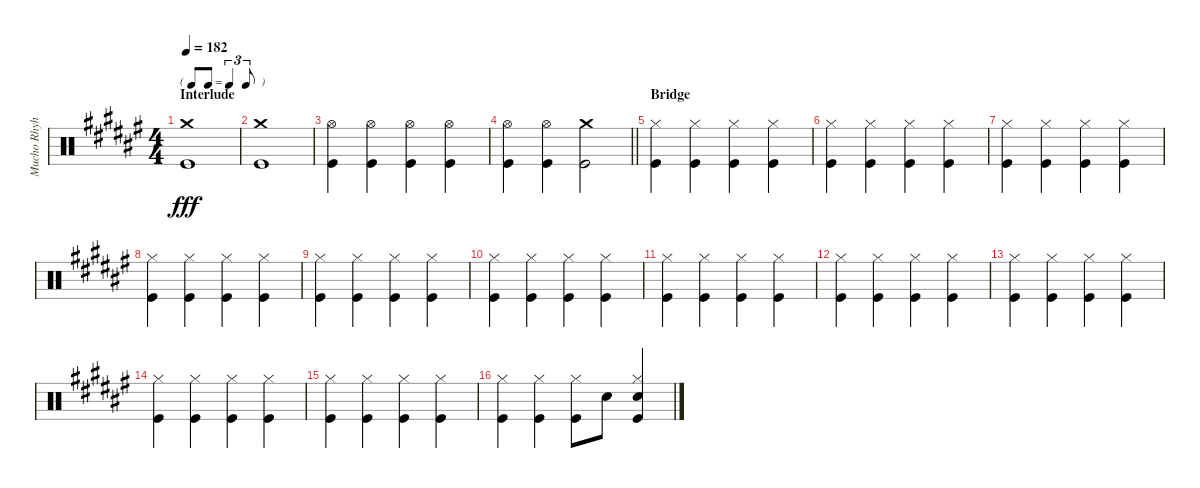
\track ("Mucho Rhyhtm" "Mucho Rhyh") {instrument percussion}
\staff {score}
\articulation defaults
\ts (4 4)
\tf triplet8th
\section ("" "Interlude")
\tempo 182
\clef neutral
\ks f#
("Crash medium (hit)" "Kick (hit)").1{dy fff} |
("Crash medium (hit)" "Kick (hit)").1 |
("Hi-Hat (open)" "Kick (hit)").4 ("Hi-Hat (open)" "Kick (hit)").4 ("Hi-Hat (open)" "Kick (hit)").4 ("Hi-Hat (open)" "Kick (hit)").4 |
\barLineRight lightlight
("Hi-Hat (open)" "Kick (hit)").4 ("Hi-Hat (open)" "Kick (hit)").4 ("Crash medium (hit)" "Kick (hit)").2 |
\section ("" "Bridge")
("Hi-Hat (closed)" "Kick (hit)").4 ("Hi-Hat (closed)" "Kick (hit)").4 ("Hi-Hat (closed)" "Kick (hit)").4 ("Hi-Hat (closed)" "Kick (hit)").4 |
("Hi-Hat (closed)" "Kick (hit)").4 ("Hi-Hat (closed)" "Kick (hit)").4 ("Hi-Hat (closed)" "Kick (hit)").4 ("Hi-Hat (closed)" "Kick (hit)").4 |
("Hi-Hat (closed)" "Kick (hit)").4 ("Hi-Hat (closed)" "Kick (hit)").4 ("Hi-Hat (closed)" "Kick (hit)").4 ("Hi-Hat (closed)" "Kick (hit)").4 |
("Hi-Hat (closed)" "Kick (hit)").4 ("Hi-Hat (closed)" "Kick (hit)").4 ("Hi-Hat (closed)" "Kick (hit)").4 ("Hi-Hat (closed)" "Kick (hit)").4 |
("Hi-Hat (closed)" "Kick (hit)").4 ("Hi-Hat (closed)" "Kick (hit)").4 ("Hi-Hat (closed)" "Kick (hit)").4 ("Hi-Hat (closed)" "Kick (hit)").4 |
("Hi-Hat (closed)" "Kick (hit)").4 ("Hi-Hat (closed)" "Kick (hit)").4 ("Hi-Hat (closed)" "Kick (hit)").4 ("Hi-Hat (closed)" "Kick (hit)").4 |
("Hi-Hat (closed)" "Kick (hit)").4 ("Hi-Hat (closed)" "Kick (hit)").4 ("Hi-Hat (closed)" "Kick (hit)").4 ("Hi-Hat (closed)" "Kick (hit)").4 |
("Hi-Hat (closed)" "Kick (hit)").4 ("Hi-Hat (closed)" "Kick (hit)").4 ("Hi-Hat (closed)" "Kick (hit)").4 ("Hi-Hat (closed)" "Kick (hit)").4 |
("Hi-Hat (closed)" "Kick (hit)").4 ("Hi-Hat (closed)" "Kick (hit)").4 ("Hi-Hat (closed)" "Kick (hit)").4 ("Hi-Hat (closed)" "Kick (hit)").4 |
("Hi-Hat (closed)" "Kick (hit)").4 ("Hi-Hat (closed)" "Kick (hit)").4 ("Hi-Hat (closed)" "Kick (hit)").4 ("Hi-Hat (closed)" "Kick (hit)").4 |
("Hi-Hat (closed)" "Kick (hit)").4 ("Hi-Hat (closed)" "Kick (hit)").4 ("Hi-Hat (closed)" "Kick (hit)").4 ("Hi-Hat (closed)" "Kick (hit)").4 |
("Hi-Hat (closed)" "Kick (hit)").4 ("Hi-Hat (closed)" "Kick (hit)").4 ("Hi-Hat (closed)" "Kick (hit)").8 "Snare (hit) 2".8 ("Hi-Hat (closed)" "Snare (hit) 2" "Kick (hit)").4
